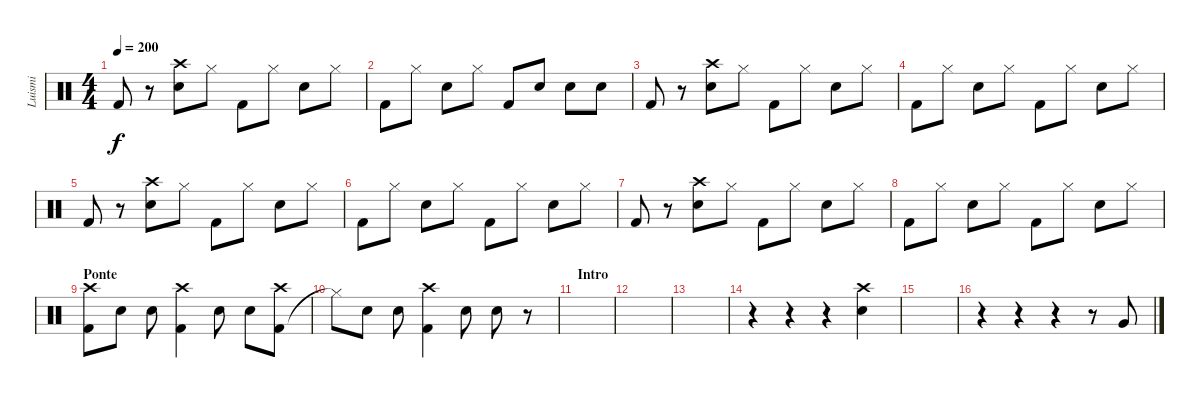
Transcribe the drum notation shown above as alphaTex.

\track ("Luismi" "Luismi") {instrument percussion}
\staff {score}
\articulation defaults
\ts (4 4)
\tempo 200
\clef neutral
\ks c "Kick (hit) 2".8{dy f}
r.8 ("Electric Snare (hit)" "Crash high (hit)").8 "Hi-Hat (closed)".8 "Kick (hit) 2".8 "Hi-Hat (closed)".8 "Electric Snare (hit)".8 "Hi-Hat (closed)".8 |
"Kick (hit) 2".8 "Hi-Hat (closed)".8 "Electric Snare (hit)".8 "Hi-Hat (closed)".8 "Kick (hit) 2".8 "Electric Snare (hit)".8 "Electric Snare (hit)".8 "Electric Snare (hit)".8 |
"Kick (hit) 2".8 r.8 ("Electric Snare (hit)" "Crash high (hit)").8 "Hi-Hat (closed)".8 "Kick (hit) 2".8 "Hi-Hat (closed)".8 "Electric Snare (hit)".8 "Hi-Hat (closed)".8 |
"Kick (hit) 2".8 "Hi-Hat (closed)".8 "Electric Snare (hit)".8 "Hi-Hat (closed)".8 "Kick (hit) 2".8 "Hi-Hat (closed)".8 "Electric Snare (hit)".8 "Hi-Hat (closed)".8 |
"Kick (hit) 2".8 r.8 ("Electric Snare (hit)" "Crash high (hit)").8 "Hi-Hat (closed)".8 "Kick (hit) 2".8 "Hi-Hat (closed)".8 "Electric Snare (hit)".8 "Hi-Hat (closed)".8 |
"Kick (hit) 2".8 "Hi-Hat (closed)".8 "Electric Snare (hit)".8 "Hi-Hat (closed)".8 "Kick (hit) 2".8 "Hi-Hat (closed)".8 "Electric Snare (hit)".8 "Hi-Hat (closed)".8 |
"Kick (hit) 2".8 r.8 ("Electric Snare (hit)" "Crash high (hit)").8 "Hi-Hat (closed)".8 "Kick (hit) 2".8 "Hi-Hat (closed)".8 "Electric Snare (hit)".8 "Hi-Hat (closed)".8 |
"Kick (hit) 2".8 "Hi-Hat (closed)".8 "Electric Snare (hit)".8 "Hi-Hat (closed)".8 "Kick (hit) 2".8 "Hi-Hat (closed)".8 "Electric Snare (hit)".8 "Hi-Hat (closed)".8 |
\section ("" "Ponte")
("Kick (hit) 2" "Crash high (hit)").8 "Electric Snare (hit)".8 "Electric Snare (hit)".8 ("Kick (hit) 2" "Crash high (hit)").4 "Electric Snare (hit)".8 "Electric Snare (hit)".8 ("Kick (hit) 2" "Crash high (hit)").8 |
"Hi-Hat (closed)"{t}.8 "Electric Snare (hit)".8 "Electric Snare (hit)".8 ("Kick (hit) 2" "Crash high (hit)").4 "Electric Snare (hit)".8 "Electric Snare (hit)".8 r.8 |
\section ("" "Intro")
|
|
|
r.4 r.4 r.4 ("Electric Snare (hit)" "Crash high (hit)").4 |
|
r.4 r.4 r.4 r.8 "Very Low Tom (hit)".8
